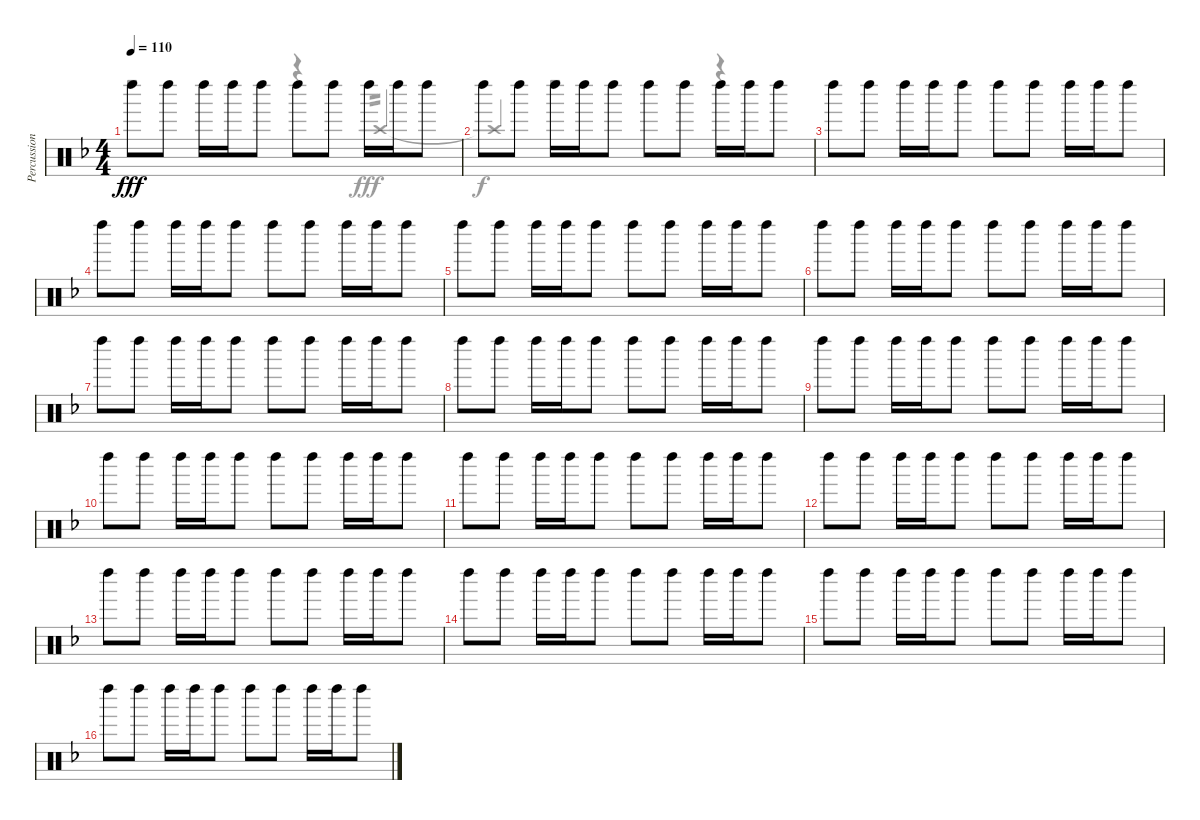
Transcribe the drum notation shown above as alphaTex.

\track ("Percussions" "Percussion") {instrument percussion}
\staff {score}
\articulation defaults
\voice
\ts (4 4)
\tempo 110
\clef neutral
\ks f "Left Maraca (hit)".8{dy fff beam Down} "Left Maraca (hit)".8{beam Down} "Left Maraca (hit)".16{beam Down} "Left Maraca (hit)".16{beam Down} "Left Maraca (hit)".8{beam Down} "Left Maraca (hit)".8{beam Down} "Left Maraca (hit)".8{beam Down} "Left Maraca (hit)".16{beam Down} "Left Maraca (hit)".16{beam Down} "Left Maraca (hit)".8{beam Down}
|
"Left Maraca (hit)".8{beam Down} "Left Maraca (hit)".8{beam Down} "Left Maraca (hit)".16{beam Down} "Left Maraca (hit)".16{beam Down} "Left Maraca (hit)".8{beam Down} "Left Maraca (hit)".8{beam Down} "Left Maraca (hit)".8{beam Down} "Left Maraca (hit)".16{beam Down} "Left Maraca (hit)".16{beam Down} "Left Maraca (hit)".8{beam Down} |
"Left Maraca (hit)".8 "Left Maraca (hit)".8 "Left Maraca (hit)".16 "Left Maraca (hit)".16 "Left Maraca (hit)".8 "Left Maraca (hit)".8 "Left Maraca (hit)".8 "Left Maraca (hit)".16 "Left Maraca (hit)".16 "Left Maraca (hit)".8 |
"Left Maraca (hit)".8 "Left Maraca (hit)".8 "Left Maraca (hit)".16 "Left Maraca (hit)".16 "Left Maraca (hit)".8 "Left Maraca (hit)".8 "Left Maraca (hit)".8 "Left Maraca (hit)".16 "Left Maraca (hit)".16 "Left Maraca (hit)".8 |
"Left Maraca (hit)".8 "Left Maraca (hit)".8 "Left Maraca (hit)".16 "Left Maraca (hit)".16 "Left Maraca (hit)".8 "Left Maraca (hit)".8 "Left Maraca (hit)".8 "Left Maraca (hit)".16 "Left Maraca (hit)".16 "Left Maraca (hit)".8 |
"Left Maraca (hit)".8 "Left Maraca (hit)".8 "Left Maraca (hit)".16 "Left Maraca (hit)".16 "Left Maraca (hit)".8 "Left Maraca (hit)".8 "Left Maraca (hit)".8 "Left Maraca (hit)".16 "Left Maraca (hit)".16 "Left Maraca (hit)".8 |
"Left Maraca (hit)".8 "Left Maraca (hit)".8 "Left Maraca (hit)".16 "Left Maraca (hit)".16 "Left Maraca (hit)".8 "Left Maraca (hit)".8 "Left Maraca (hit)".8 "Left Maraca (hit)".16 "Left Maraca (hit)".16 "Left Maraca (hit)".8 |
"Left Maraca (hit)".8 "Left Maraca (hit)".8 "Left Maraca (hit)".16 "Left Maraca (hit)".16 "Left Maraca (hit)".8 "Left Maraca (hit)".8 "Left Maraca (hit)".8 "Left Maraca (hit)".16 "Left Maraca (hit)".16 "Left Maraca (hit)".8 |
"Left Maraca (hit)".8 "Left Maraca (hit)".8 "Left Maraca (hit)".16 "Left Maraca (hit)".16 "Left Maraca (hit)".8 "Left Maraca (hit)".8 "Left Maraca (hit)".8 "Left Maraca (hit)".16 "Left Maraca (hit)".16 "Left Maraca (hit)".8 |
"Left Maraca (hit)".8 "Left Maraca (hit)".8 "Left Maraca (hit)".16 "Left Maraca (hit)".16 "Left Maraca (hit)".8 "Left Maraca (hit)".8 "Left Maraca (hit)".8 "Left Maraca (hit)".16 "Left Maraca (hit)".16 "Left Maraca (hit)".8 |
"Left Maraca (hit)".8 "Left Maraca (hit)".8 "Left Maraca (hit)".16 "Left Maraca (hit)".16 "Left Maraca (hit)".8 "Left Maraca (hit)".8 "Left Maraca (hit)".8 "Left Maraca (hit)".16 "Left Maraca (hit)".16 "Left Maraca (hit)".8 |
"Left Maraca (hit)".8 "Left Maraca (hit)".8 "Left Maraca (hit)".16 "Left Maraca (hit)".16 "Left Maraca (hit)".8 "Left Maraca (hit)".8 "Left Maraca (hit)".8 "Left Maraca (hit)".16 "Left Maraca (hit)".16 "Left Maraca (hit)".8 |
"Left Maraca (hit)".8 "Left Maraca (hit)".8 "Left Maraca (hit)".16 "Left Maraca (hit)".16 "Left Maraca (hit)".8 "Left Maraca (hit)".8 "Left Maraca (hit)".8 "Left Maraca (hit)".16 "Left Maraca (hit)".16 "Left Maraca (hit)".8 |
"Left Maraca (hit)".8 "Left Maraca (hit)".8 "Left Maraca (hit)".16 "Left Maraca (hit)".16 "Left Maraca (hit)".8 "Left Maraca (hit)".8 "Left Maraca (hit)".8 "Left Maraca (hit)".16 "Left Maraca (hit)".16 "Left Maraca (hit)".8 |
"Left Maraca (hit)".8 "Left Maraca (hit)".8 "Left Maraca (hit)".16 "Left Maraca (hit)".16 "Left Maraca (hit)".8 "Left Maraca (hit)".8 "Left Maraca (hit)".8 "Left Maraca (hit)".16 "Left Maraca (hit)".16 "Left Maraca (hit)".8 |
"Left Maraca (hit)".8 "Left Maraca (hit)".8 "Left Maraca (hit)".16 "Left Maraca (hit)".16 "Left Maraca (hit)".8 "Left Maraca (hit)".8 "Left Maraca (hit)".8 "Left Maraca (hit)".16 "Left Maraca (hit)".16 "Left Maraca (hit)".8
\voice
\clef neutral
\ottava regular
\simile none
\ks f
r.2{dy fff} r.4 "Crash high (hit)".4{tp 2 beam Up} |
"Crash high (hit)"{t}.4{dy f beam Up} r.2 r.4 |
|
|
|
|
|
|
|
|
|
|
|
|
|
